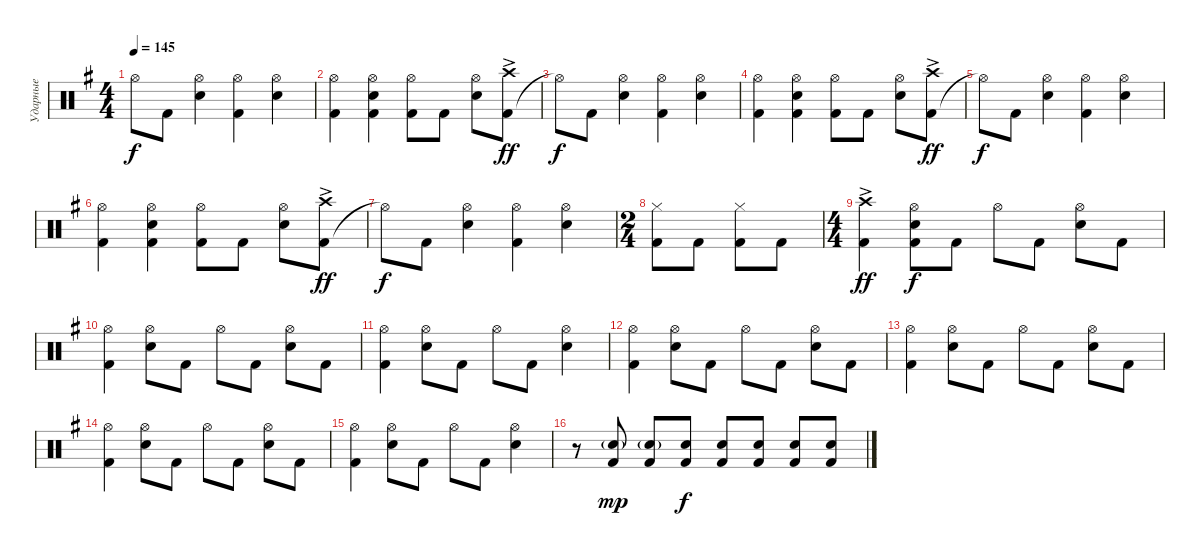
\track ("Ударные" "Ударные") {instrument percussion}
\staff {score}
\articulation defaults
\ts (4 4)
\tempo 145
\clef neutral
\ks g "Hi-Hat (open)"{t}.8{dy f} "Kick (hit) 2".8
("Snare (hit) 2" "Hi-Hat (open)").4 ("Kick (hit) 2" "Hi-Hat (open)").4 ("Snare (hit) 2" "Hi-Hat (open)").4 |
("Kick (hit) 2" "Hi-Hat (open)").4 ("Kick (hit) 2" "Snare (hit) 2" "Hi-Hat (open)").4 ("Kick (hit) 2" "Hi-Hat (open)").8 "Kick (hit) 2".8 ("Snare (hit) 2" "Hi-Hat (open)").8 ("Kick (hit) 2" "Crash high (hit)"{ac}).8{dy ff} |
"Hi-Hat (open)"{t}.8{dy f} "Kick (hit) 2".8 ("Snare (hit) 2" "Hi-Hat (open)").4 ("Kick (hit) 2" "Hi-Hat (open)").4 ("Snare (hit) 2" "Hi-Hat (open)").4 |
("Kick (hit) 2" "Hi-Hat (open)").4 ("Kick (hit) 2" "Snare (hit) 2" "Hi-Hat (open)").4 ("Kick (hit) 2" "Hi-Hat (open)").8 "Kick (hit) 2".8 ("Snare (hit) 2" "Hi-Hat (open)").8 ("Kick (hit) 2" "Crash high (hit)"{ac}).8{dy ff} |
"Hi-Hat (open)"{t}.8{dy f} "Kick (hit) 2".8 ("Snare (hit) 2" "Hi-Hat (open)").4 ("Kick (hit) 2" "Hi-Hat (open)").4 ("Snare (hit) 2" "Hi-Hat (open)").4 |
("Kick (hit) 2" "Hi-Hat (open)").4 ("Kick (hit) 2" "Snare (hit) 2" "Hi-Hat (open)").4 ("Kick (hit) 2" "Hi-Hat (open)").8 "Kick (hit) 2".8 ("Snare (hit) 2" "Hi-Hat (open)").8 ("Kick (hit) 2" "Crash high (hit)"{ac}).8{dy ff} |
"Hi-Hat (open)"{t}.8{dy f} "Kick (hit) 2".8 ("Snare (hit) 2" "Hi-Hat (open)").4 ("Kick (hit) 2" "Hi-Hat (open)").4 ("Snare (hit) 2" "Hi-Hat (open)").4 |
\ts (2 4)
("Kick (hit) 2" "Hi-Hat (closed)").8 "Kick (hit) 2".8 ("Kick (hit) 2" "Hi-Hat (closed)").8 "Kick (hit) 2".8 |
\ts (4 4)
("Kick (hit) 2" "Crash high (hit)"{ac}).4{dy ff} ("Kick (hit) 2" "Snare (hit) 2" "Hi-Hat (open)").8{dy f} "Kick (hit) 2".8 "Hi-Hat (open)".8 "Kick (hit) 2".8 ("Snare (hit) 2" "Hi-Hat (open)").8 "Kick (hit) 2".8 |
("Kick (hit) 2" "Hi-Hat (open)").4 ("Snare (hit) 2" "Hi-Hat (open)").8 "Kick (hit) 2".8 "Hi-Hat (open)".8 "Kick (hit) 2".8 ("Snare (hit) 2" "Hi-Hat (open)").8 "Kick (hit) 2".8 |
("Kick (hit) 2" "Hi-Hat (open)").4 ("Snare (hit) 2" "Hi-Hat (open)").8 "Kick (hit) 2".8 "Hi-Hat (open)".8 "Kick (hit) 2".8 ("Snare (hit) 2" "Hi-Hat (open)").4 |
("Kick (hit) 2" "Hi-Hat (open)").4 ("Snare (hit) 2" "Hi-Hat (open)").8 "Kick (hit) 2".8 "Hi-Hat (open)".8 "Kick (hit) 2".8 ("Snare (hit) 2" "Hi-Hat (open)").8 "Kick (hit) 2".8 |
("Kick (hit) 2" "Hi-Hat (open)").4 ("Snare (hit) 2" "Hi-Hat (open)").8 "Kick (hit) 2".8 "Hi-Hat (open)".8 "Kick (hit) 2".8 ("Snare (hit) 2" "Hi-Hat (open)").8 "Kick (hit) 2".8 |
("Kick (hit) 2" "Hi-Hat (open)").4 ("Snare (hit) 2" "Hi-Hat (open)").8 "Kick (hit) 2".8 "Hi-Hat (open)".8 "Kick (hit) 2".8 ("Snare (hit) 2" "Hi-Hat (open)").8 "Kick (hit) 2".8 |
("Kick (hit) 2" "Hi-Hat (open)").4 ("Snare (hit) 2" "Hi-Hat (open)").8 "Kick (hit) 2".8 "Hi-Hat (open)".8 "Kick (hit) 2".8 ("Snare (hit) 2" "Hi-Hat (open)").4 |
r.8 ("Kick (hit) 2" "Snare (hit) 2"{g}).8{dy mp} ("Kick (hit) 2" "Snare (hit) 2"{g}).8 ("Kick (hit) 2" "Snare (hit) 2").8{dy f} ("Kick (hit) 2" "Snare (hit) 2").8 ("Kick (hit) 2" "Snare (hit) 2").8 ("Kick (hit) 2" "Snare (hit) 2").8 ("Kick (hit) 2" "Snare (hit) 2").8
